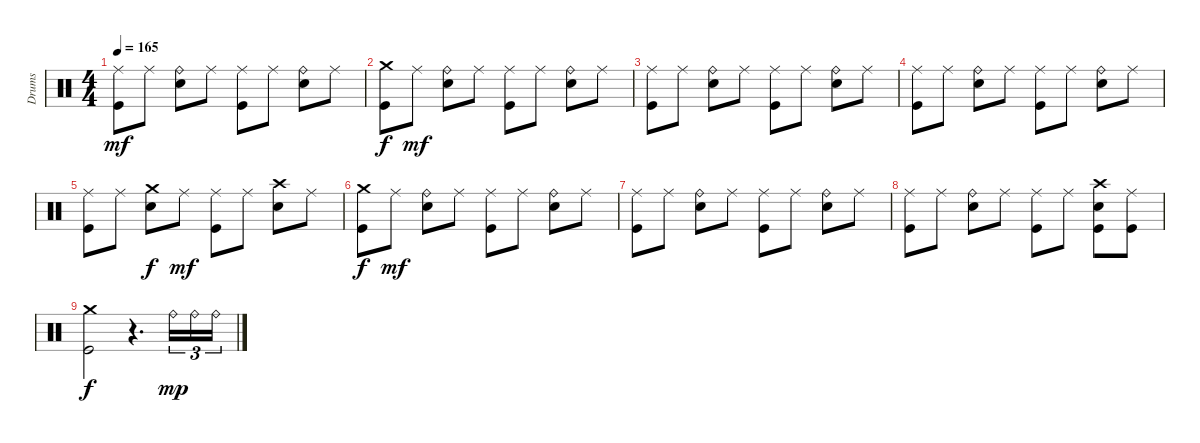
\track ("Drums" "Drums") {instrument percussion}
\staff {score}
\articulation defaults
\ts (4 4)
\tempo 165
\clef neutral
\ks c
("Ride (middle)" "Kick (hit)").8{dy mf} "Ride (middle)".8 ("Ride (bell)" "Electric Snare (hit)").8 "Ride (middle)".8 ("Ride (middle)" "Kick (hit)").8 "Ride (middle)".8 ("Ride (bell)" "Electric Snare (hit)").8 "Ride (middle)".8 |
("Crash medium (hit)" "Kick (hit)").8{dy f} "Ride (middle)".8{dy mf} ("Ride (bell)" "Electric Snare (hit)").8 "Ride (middle)".8 ("Ride (middle)" "Kick (hit)").8 "Ride (middle)".8 ("Ride (bell)" "Electric Snare (hit)").8 "Ride (middle)".8 |
("Ride (middle)" "Kick (hit)").8 "Ride (middle)".8 ("Ride (bell)" "Electric Snare (hit)").8 "Ride (middle)".8 ("Ride (middle)" "Kick (hit)").8 "Ride (middle)".8 ("Ride (bell)" "Electric Snare (hit)").8 "Ride (middle)".8 |
("Ride (middle)" "Kick (hit)").8 "Ride (middle)".8 ("Ride (bell)" "Electric Snare (hit)").8 "Ride (middle)".8 ("Ride (middle)" "Kick (hit)").8 "Ride (middle)".8 ("Ride (bell)" "Electric Snare (hit)").8 "Ride (middle)".8 |
("Ride (middle)" "Kick (hit)").8 "Ride (middle)".8 ("Crash medium (hit)" "Electric Snare (hit)").8{dy f} "Ride (middle)".8{dy mf} ("Ride (middle)" "Kick (hit)").8 "Ride (middle)".8 ("Crash high (hit)" "Electric Snare (hit)").8 "Ride (middle)".8 |
("Crash medium (hit)" "Kick (hit)").8{dy f} "Ride (middle)".8{dy mf} ("Ride (bell)" "Electric Snare (hit)").8 "Ride (middle)".8 ("Ride (middle)" "Kick (hit)").8 "Ride (middle)".8 ("Ride (bell)" "Electric Snare (hit)").8 "Ride (middle)".8 |
("Ride (middle)" "Kick (hit)").8 "Ride (middle)".8 ("Ride (bell)" "Electric Snare (hit)").8 "Ride (middle)".8 ("Ride (middle)" "Kick (hit)").8 "Ride (middle)".8 ("Ride (bell)" "Electric Snare (hit)").8 "Ride (middle)".8 |
("Ride (middle)" "Kick (hit)").8 "Ride (middle)".8 ("Ride (bell)" "Electric Snare (hit)").8 "Ride (middle)".8 ("Ride (middle)" "Kick (hit)").8 "Ride (middle)".8 ("Crash high (hit)" "Electric Snare (hit)" "Kick (hit)").8 ("Ride (middle)" "Kick (hit)").8 |
("Crash medium (hit)" "Kick (hit)").2{dy f} r.4{d} "Ride (bell)".16{tu (3 2) dy mp} "Ride (bell)".16{tu (3 2)} "Ride (bell)".16{tu (3 2)}
